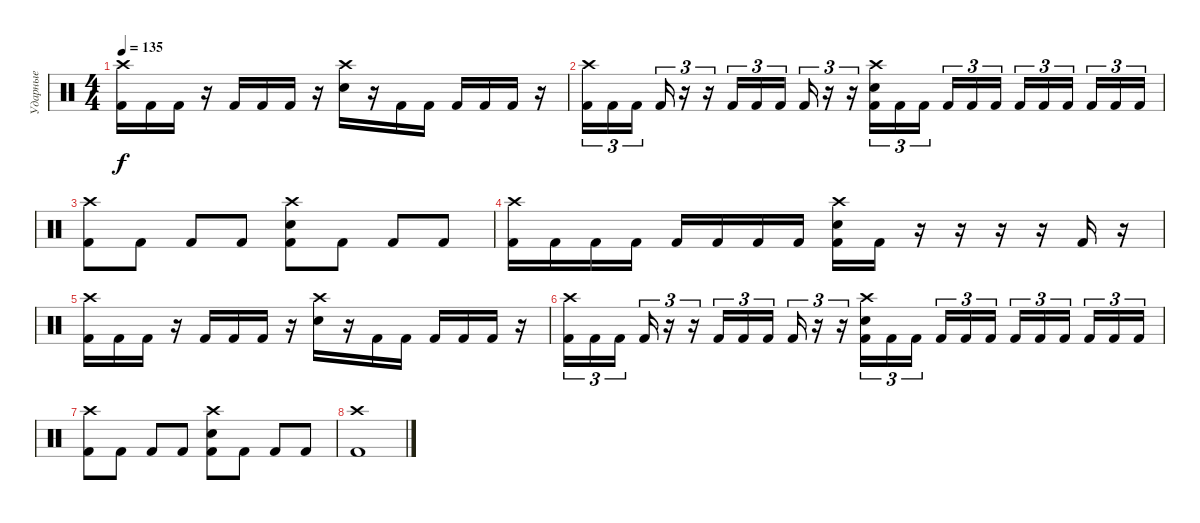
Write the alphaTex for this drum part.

\track ("Ударные" "Ударные") {instrument percussion}
\staff {score}
\articulation defaults
\ts (4 4)
\tempo 135
\clef neutral
\ks c
("Crash high (hit)" "Kick (hit) 2").16{dy f} "Kick (hit) 2".16 "Kick (hit) 2".16 r.16 "Kick (hit) 2".16 "Kick (hit) 2".16 "Kick (hit) 2".16 r.16 ("Crash high (hit)" "Electric Snare (hit)").16 r.16 "Kick (hit) 2".16 "Kick (hit) 2".16 "Kick (hit) 2".16 "Kick (hit) 2".16 "Kick (hit) 2".16 r.16 |
("Crash high (hit)" "Kick (hit) 2").16{tu (3 2)} "Kick (hit) 2".16{tu (3 2)} "Kick (hit) 2".16{tu (3 2) beam splitsecondary} "Kick (hit) 2".16{tu (3 2)} r.16{tu (3 2)} r.16{tu (3 2)} "Kick (hit) 2".16{tu (3 2)} "Kick (hit) 2".16{tu (3 2)} "Kick (hit) 2".16{tu (3 2) beam splitsecondary} "Kick (hit) 2".16{tu (3 2)} r.16{tu (3 2)} r.16{tu (3 2)} ("Crash high (hit)" "Electric Snare (hit)" "Kick (hit) 2").16{tu (3 2)} "Kick (hit) 2".16{tu (3 2)} "Kick (hit) 2".16{tu (3 2) beam splitsecondary} "Kick (hit) 2".16{tu (3 2)} "Kick (hit) 2".16{tu (3 2)} "Kick (hit) 2".16{tu (3 2)} "Kick (hit) 2".16{tu (3 2)} "Kick (hit) 2".16{tu (3 2)} "Kick (hit) 2".16{tu (3 2) beam splitsecondary} "Kick (hit) 2".16{tu (3 2)} "Kick (hit) 2".16{tu (3 2)} "Kick (hit) 2".16{tu (3 2)} |
("Crash high (hit)" "Kick (hit) 2").8 "Kick (hit) 2".8 "Kick (hit) 2".8 "Kick (hit) 2".8 ("Crash high (hit)" "Electric Snare (hit)" "Kick (hit) 2").8 "Kick (hit) 2".8 "Kick (hit) 2".8 "Kick (hit) 2".8 |
("Crash high (hit)" "Kick (hit) 2").16 "Kick (hit) 2".16 "Kick (hit) 2".16 "Kick (hit) 2".16 "Kick (hit) 2".16 "Kick (hit) 2".16 "Kick (hit) 2".16 "Kick (hit) 2".16 ("Crash high (hit)" "Electric Snare (hit)" "Kick (hit) 2").16 "Kick (hit) 2".16 r.16 r.16 r.16 r.16 "Kick (hit) 2".16 r.16 |
("Crash high (hit)" "Kick (hit) 2").16 "Kick (hit) 2".16 "Kick (hit) 2".16 r.16 "Kick (hit) 2".16 "Kick (hit) 2".16 "Kick (hit) 2".16 r.16 ("Crash high (hit)" "Electric Snare (hit)").16 r.16 "Kick (hit) 2".16 "Kick (hit) 2".16 "Kick (hit) 2".16 "Kick (hit) 2".16 "Kick (hit) 2".16 r.16 |
("Crash high (hit)" "Kick (hit) 2").16{tu (3 2)} "Kick (hit) 2".16{tu (3 2)} "Kick (hit) 2".16{tu (3 2) beam splitsecondary} "Kick (hit) 2".16{tu (3 2)} r.16{tu (3 2)} r.16{tu (3 2)} "Kick (hit) 2".16{tu (3 2)} "Kick (hit) 2".16{tu (3 2)} "Kick (hit) 2".16{tu (3 2) beam splitsecondary} "Kick (hit) 2".16{tu (3 2)} r.16{tu (3 2)} r.16{tu (3 2)} ("Crash high (hit)" "Electric Snare (hit)" "Kick (hit) 2").16{tu (3 2)} "Kick (hit) 2".16{tu (3 2)} "Kick (hit) 2".16{tu (3 2) beam splitsecondary} "Kick (hit) 2".16{tu (3 2)} "Kick (hit) 2".16{tu (3 2)} "Kick (hit) 2".16{tu (3 2)} "Kick (hit) 2".16{tu (3 2)} "Kick (hit) 2".16{tu (3 2)} "Kick (hit) 2".16{tu (3 2) beam splitsecondary} "Kick (hit) 2".16{tu (3 2)} "Kick (hit) 2".16{tu (3 2)} "Kick (hit) 2".16{tu (3 2)} |
("Crash high (hit)" "Kick (hit) 2").8 "Kick (hit) 2".8 "Kick (hit) 2".8 "Kick (hit) 2".8 ("Crash high (hit)" "Electric Snare (hit)" "Kick (hit) 2").8 "Kick (hit) 2".8 "Kick (hit) 2".8 "Kick (hit) 2".8 |
("Crash high (hit)" "Kick (hit) 2").1
